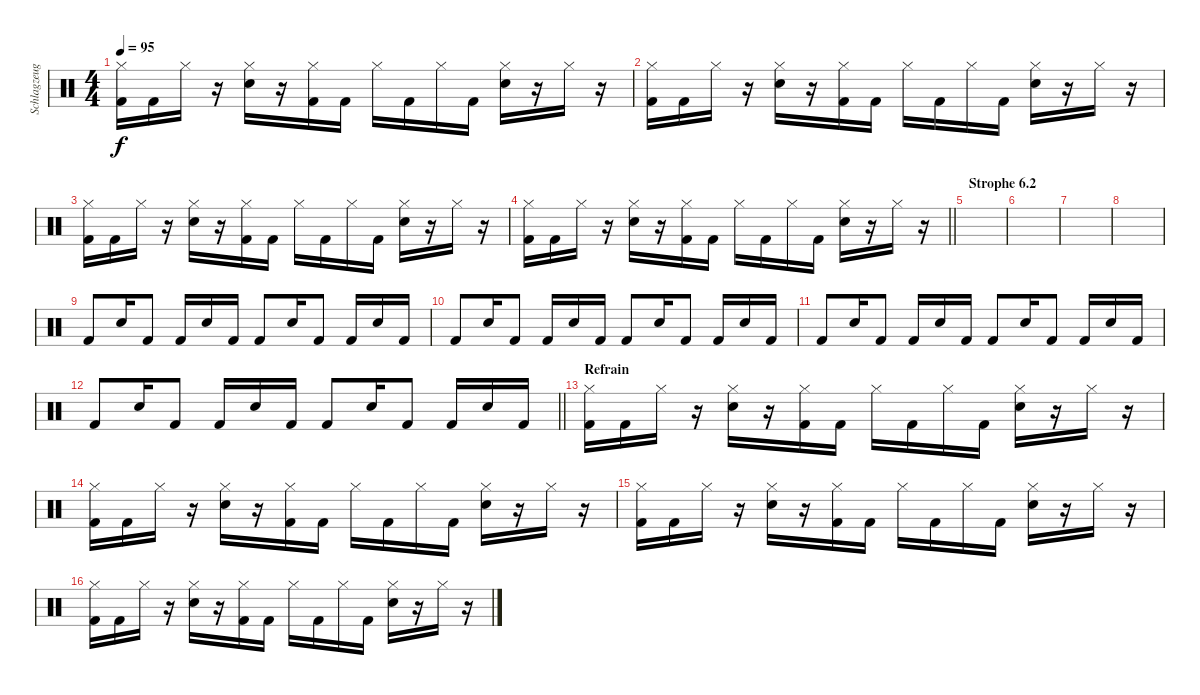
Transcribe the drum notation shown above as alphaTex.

\track ("Schlagzeug" "Schlagzeug") {instrument percussion}
\staff {score}
\articulation defaults
\ts (4 4)
\tempo 95
\clef neutral
\ks c
("Hi-Hat (closed)" "Kick (hit) 2").16{dy f} "Kick (hit) 2".16 "Hi-Hat (closed)".16 r.16 ("Hi-Hat (closed)" "Snare (hit) 2").16 r.16 ("Hi-Hat (closed)" "Kick (hit) 2").16 "Kick (hit) 2".16 "Hi-Hat (closed)".16 "Kick (hit) 2".16 "Hi-Hat (closed)".16 "Kick (hit) 2".16 ("Hi-Hat (closed)" "Snare (hit) 2").16 r.16 "Hi-Hat (closed)".16 r.16 |
("Hi-Hat (closed)" "Kick (hit) 2").16 "Kick (hit) 2".16 "Hi-Hat (closed)".16 r.16 ("Hi-Hat (closed)" "Snare (hit) 2").16 r.16 ("Hi-Hat (closed)" "Kick (hit) 2").16 "Kick (hit) 2".16 "Hi-Hat (closed)".16 "Kick (hit) 2".16 "Hi-Hat (closed)".16 "Kick (hit) 2".16 ("Hi-Hat (closed)" "Snare (hit) 2").16 r.16 "Hi-Hat (closed)".16 r.16 |
("Hi-Hat (closed)" "Kick (hit) 2").16 "Kick (hit) 2".16 "Hi-Hat (closed)".16 r.16 ("Hi-Hat (closed)" "Snare (hit) 2").16 r.16 ("Hi-Hat (closed)" "Kick (hit) 2").16 "Kick (hit) 2".16 "Hi-Hat (closed)".16 "Kick (hit) 2".16 "Hi-Hat (closed)".16 "Kick (hit) 2".16 ("Hi-Hat (closed)" "Snare (hit) 2").16 r.16 "Hi-Hat (closed)".16 r.16 |
\barLineRight lightlight
("Hi-Hat (closed)" "Kick (hit) 2").16 "Kick (hit) 2".16 "Hi-Hat (closed)".16 r.16 ("Hi-Hat (closed)" "Snare (hit) 2").16 r.16 ("Hi-Hat (closed)" "Kick (hit) 2").16 "Kick (hit) 2".16 "Hi-Hat (closed)".16 "Kick (hit) 2".16 "Hi-Hat (closed)".16 "Kick (hit) 2".16 ("Hi-Hat (closed)" "Snare (hit) 2").16 r.16 "Hi-Hat (closed)".16 r.16 |
\section ("" "Strophe 6.2")
|
|
|
|
"Kick (hit) 2".8 "Snare (hit) 2".16 "Kick (hit) 2".8 "Kick (hit) 2".16 "Snare (hit) 2".16 "Kick (hit) 2".16 "Kick (hit) 2".8 "Snare (hit) 2".16 "Kick (hit) 2".8 "Kick (hit) 2".16 "Snare (hit) 2".16 "Kick (hit) 2".16 |
"Kick (hit) 2".8 "Snare (hit) 2".16 "Kick (hit) 2".8 "Kick (hit) 2".16 "Snare (hit) 2".16 "Kick (hit) 2".16 "Kick (hit) 2".8 "Snare (hit) 2".16 "Kick (hit) 2".8 "Kick (hit) 2".16 "Snare (hit) 2".16 "Kick (hit) 2".16 |
"Kick (hit) 2".8 "Snare (hit) 2".16 "Kick (hit) 2".8 "Kick (hit) 2".16 "Snare (hit) 2".16 "Kick (hit) 2".16 "Kick (hit) 2".8 "Snare (hit) 2".16 "Kick (hit) 2".8 "Kick (hit) 2".16 "Snare (hit) 2".16 "Kick (hit) 2".16 |
\barLineRight lightlight "Kick (hit) 2".8 "Snare (hit) 2".16 "Kick (hit) 2".8 "Kick (hit) 2".16 "Snare (hit) 2".16 "Kick (hit) 2".16 "Kick (hit) 2".8 "Snare (hit) 2".16 "Kick (hit) 2".8 "Kick (hit) 2".16 "Snare (hit) 2".16 "Kick (hit) 2".16
|
\section ("" "Refrain")
("Hi-Hat (closed)" "Kick (hit) 2").16 "Kick (hit) 2".16 "Hi-Hat (closed)".16 r.16 ("Hi-Hat (closed)" "Snare (hit) 2").16 r.16 ("Hi-Hat (closed)" "Kick (hit) 2").16 "Kick (hit) 2".16 "Hi-Hat (closed)".16 "Kick (hit) 2".16 "Hi-Hat (closed)".16 "Kick (hit) 2".16 ("Hi-Hat (closed)" "Snare (hit) 2").16 r.16 "Hi-Hat (closed)".16 r.16 |
("Hi-Hat (closed)" "Kick (hit) 2").16 "Kick (hit) 2".16 "Hi-Hat (closed)".16 r.16 ("Hi-Hat (closed)" "Snare (hit) 2").16 r.16 ("Hi-Hat (closed)" "Kick (hit) 2").16 "Kick (hit) 2".16 "Hi-Hat (closed)".16 "Kick (hit) 2".16 "Hi-Hat (closed)".16 "Kick (hit) 2".16 ("Hi-Hat (closed)" "Snare (hit) 2").16 r.16 "Hi-Hat (closed)".16 r.16 |
("Hi-Hat (closed)" "Kick (hit) 2").16 "Kick (hit) 2".16 "Hi-Hat (closed)".16 r.16 ("Hi-Hat (closed)" "Snare (hit) 2").16 r.16 ("Hi-Hat (closed)" "Kick (hit) 2").16 "Kick (hit) 2".16 "Hi-Hat (closed)".16 "Kick (hit) 2".16 "Hi-Hat (closed)".16 "Kick (hit) 2".16 ("Hi-Hat (closed)" "Snare (hit) 2").16 r.16 "Hi-Hat (closed)".16 r.16 |
("Hi-Hat (closed)" "Kick (hit) 2").16 "Kick (hit) 2".16 "Hi-Hat (closed)".16 r.16 ("Hi-Hat (closed)" "Snare (hit) 2").16 r.16 ("Hi-Hat (closed)" "Kick (hit) 2").16 "Kick (hit) 2".16 "Hi-Hat (closed)".16 "Kick (hit) 2".16 "Hi-Hat (closed)".16 "Kick (hit) 2".16 ("Hi-Hat (closed)" "Snare (hit) 2").16 r.16 "Hi-Hat (closed)".16 r.16
